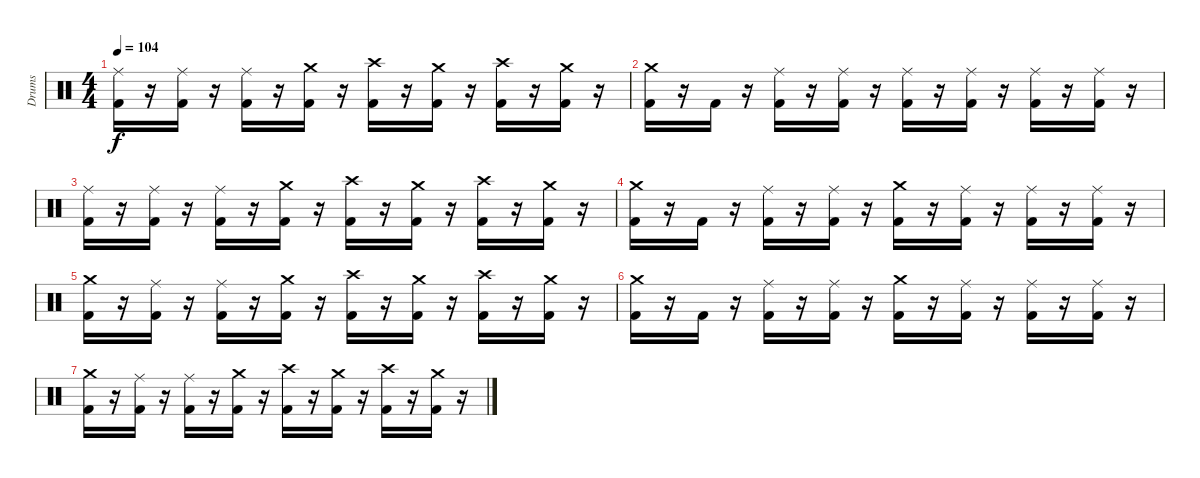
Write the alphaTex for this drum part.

\track ("Drums" "Drums") {instrument percussion}
\staff {score}
\articulation defaults
\ts (4 4)
\tempo 104
\clef neutral
\ks c
("Ride (middle)" "Kick (hit) 2").16{dy f} r.16 ("Ride (middle)" "Kick (hit) 2").16 r.16 ("Ride (middle)" "Kick (hit) 2").16 r.16 ("Crash medium (hit)" "Kick (hit) 2").16 r.16 ("Crash high (hit)" "Kick (hit) 2").16 r.16 ("Crash medium (hit)" "Kick (hit) 2").16 r.16 ("Crash high (hit)" "Kick (hit) 2").16 r.16 ("Crash medium (hit)" "Kick (hit) 2").16 r.16 |
("Crash medium (hit)" "Kick (hit) 2").16 r.16 "Kick (hit) 2".16 r.16 ("Ride (middle)" "Kick (hit) 2").16 r.16 ("Ride (middle)" "Kick (hit) 2").16 r.16 ("Ride (middle)" "Kick (hit) 2").16 r.16 ("Ride (middle)" "Kick (hit) 2").16 r.16 ("Ride (middle)" "Kick (hit) 2").16 r.16 ("Ride (middle)" "Kick (hit) 2").16 r.16 |
("Ride (middle)" "Kick (hit) 2").16 r.16 ("Ride (middle)" "Kick (hit) 2").16 r.16 ("Ride (middle)" "Kick (hit) 2").16 r.16 ("Crash medium (hit)" "Kick (hit) 2").16 r.16 ("Crash high (hit)" "Kick (hit) 2").16 r.16 ("Crash medium (hit)" "Kick (hit) 2").16 r.16 ("Crash high (hit)" "Kick (hit) 2").16 r.16 ("Crash medium (hit)" "Kick (hit) 2").16 r.16 |
("Crash medium (hit)" "Kick (hit) 2").16{volume 0} r.16 "Kick (hit) 2".16 r.16 ("Ride (middle)" "Kick (hit) 2").16 r.16 ("Ride (middle)" "Kick (hit) 2").16 r.16 ("Crash medium (hit)" "Kick (hit) 2").16 r.16 ("Ride (middle)" "Kick (hit) 2").16 r.16 ("Ride (middle)" "Kick (hit) 2").16 r.16 ("Ride (middle)" "Kick (hit) 2").16 r.16 |
("Crash medium (hit)" "Kick (hit) 2").16 r.16 ("Ride (middle)" "Kick (hit) 2").16 r.16 ("Ride (middle)" "Kick (hit) 2").16 r.16 ("Crash medium (hit)" "Kick (hit) 2").16 r.16 ("Crash high (hit)" "Kick (hit) 2").16 r.16 ("Crash medium (hit)" "Kick (hit) 2").16 r.16 ("Crash high (hit)" "Kick (hit) 2").16 r.16 ("Crash medium (hit)" "Kick (hit) 2").16 r.16 |
("Crash medium (hit)" "Kick (hit) 2").16 r.16 "Kick (hit) 2".16 r.16 ("Ride (middle)" "Kick (hit) 2").16 r.16 ("Ride (middle)" "Kick (hit) 2").16 r.16 ("Crash medium (hit)" "Kick (hit) 2").16 r.16 ("Ride (middle)" "Kick (hit) 2").16 r.16 ("Ride (middle)" "Kick (hit) 2").16 r.16 ("Ride (middle)" "Kick (hit) 2").16 r.16 |
("Crash medium (hit)" "Kick (hit) 2").16 r.16 ("Ride (middle)" "Kick (hit) 2").16 r.16 ("Ride (middle)" "Kick (hit) 2").16 r.16 ("Crash medium (hit)" "Kick (hit) 2").16 r.16 ("Crash high (hit)" "Kick (hit) 2").16 r.16 ("Crash medium (hit)" "Kick (hit) 2").16 r.16 ("Crash high (hit)" "Kick (hit) 2").16 r.16 ("Crash medium (hit)" "Kick (hit) 2").16 r.16
